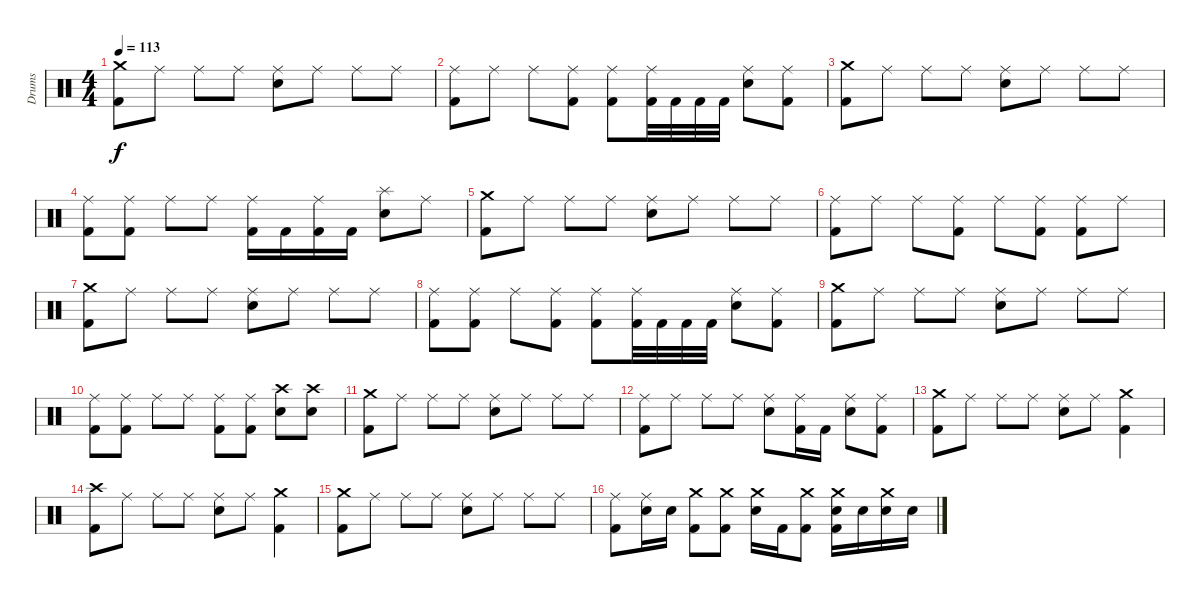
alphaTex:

\track ("Drums" "Drums") {instrument percussion}
\staff {score}
\articulation defaults
\ts (4 4)
\tempo 113
\clef neutral
\ks c
("Kick (hit) 2" "Crash medium (hit)").8{dy f} "Ride (middle)".8 "Ride (middle)".8 "Ride (middle)".8 ("Electric Snare (hit)" "Ride (middle)").8 "Ride (middle)".8 "Ride (middle)".8 "Ride (middle)".8 |
("Kick (hit) 2" "Ride (middle)").8 "Ride (middle)".8 "Ride (middle)".8 ("Kick (hit) 2" "Ride (middle)").8 ("Kick (hit) 2" "Ride (middle)").8 ("Kick (hit) 2" "Ride (middle)").32 "Kick (hit) 2".32 "Kick (hit) 2".32 "Kick (hit) 2".32 ("Electric Snare (hit)" "Ride (middle)").8 ("Kick (hit) 2" "Ride (middle)").8 |
("Kick (hit) 2" "Crash medium (hit)").8 "Ride (middle)".8 "Ride (middle)".8 "Ride (middle)".8 ("Electric Snare (hit)" "Ride (middle)").8 "Ride (middle)".8 "Ride (middle)".8 "Ride (middle)".8 |
("Kick (hit) 2" "Ride (middle)").8 ("Kick (hit) 2" "Ride (middle)").8 "Ride (middle)".8 "Ride (middle)".8 ("Kick (hit) 2" "Ride (middle)").16 "Kick (hit) 2".16 ("Kick (hit) 2" "Ride (middle)").16 "Kick (hit) 2".16 ("Electric Snare (hit)" "Splash (hit)").8 "Ride (middle)".8 |
("Kick (hit) 2" "Crash medium (hit)").8 "Ride (middle)".8 "Ride (middle)".8 "Ride (middle)".8 ("Electric Snare (hit)" "Ride (middle)").8 "Ride (middle)".8 "Ride (middle)".8 "Ride (middle)".8 |
("Kick (hit) 2" "Ride (middle)").8 "Ride (middle)".8 "Ride (middle)".8 ("Kick (hit) 2" "Ride (middle)").8 "Ride (middle)".8 ("Kick (hit) 2" "Ride (middle)").8 ("Kick (hit) 2" "Ride (middle)").8 "Ride (middle)".8 |
("Kick (hit) 2" "Crash medium (hit)").8 "Ride (middle)".8 "Ride (middle)".8 "Ride (middle)".8 ("Electric Snare (hit)" "Ride (middle)").8 "Ride (middle)".8 "Ride (middle)".8 "Ride (middle)".8 |
("Kick (hit) 2" "Ride (middle)").8 ("Kick (hit) 2" "Ride (middle)").8 "Ride (middle)".8 ("Kick (hit) 2" "Ride (middle)").8 ("Kick (hit) 2" "Ride (middle)").8 ("Kick (hit) 2" "Ride (middle)").32 "Kick (hit) 2".32 "Kick (hit) 2".32 "Kick (hit) 2".32 ("Electric Snare (hit)" "Ride (middle)").8 ("Kick (hit) 2" "Ride (middle)").8 |
("Kick (hit) 2" "Crash medium (hit)").8 "Ride (middle)".8 "Ride (middle)".8 "Ride (middle)".8 ("Electric Snare (hit)" "Ride (middle)").8 "Ride (middle)".8 "Ride (middle)".8 "Ride (middle)".8 |
("Kick (hit) 2" "Ride (middle)").8 ("Kick (hit) 2" "Ride (middle)").8 "Ride (middle)".8 "Ride (middle)".8 ("Kick (hit) 2" "Ride (middle)").8 ("Kick (hit) 2" "Ride (middle)").8 ("Electric Snare (hit)" "Crash high (hit)").8 ("Electric Snare (hit)" "Crash high (hit)").8 |
("Kick (hit) 2" "Crash medium (hit)").8 "Ride (middle)".8 "Ride (middle)".8 "Ride (middle)".8 ("Electric Snare (hit)" "Ride (middle)").8 "Ride (middle)".8 "Ride (middle)".8 "Ride (middle)".8 |
("Kick (hit) 2" "Ride (middle)").8 "Ride (middle)".8 "Ride (middle)".8 "Ride (middle)".8 ("Electric Snare (hit)" "Ride (middle)").8 ("Kick (hit) 2" "Ride (middle)").16 "Kick (hit) 2".16 ("Electric Snare (hit)" "Ride (middle)").8 ("Kick (hit) 2" "Ride (middle)").8 |
("Kick (hit) 2" "Crash medium (hit)").8 "Ride (middle)".8 "Ride (middle)".8 "Ride (middle)".8 ("Electric Snare (hit)" "Ride (middle)").8 "Ride (middle)".8 ("Kick (hit) 2" "Crash medium (hit)").4 |
("Kick (hit) 2" "Crash high (hit)").8 "Ride (middle)".8 "Ride (middle)".8 "Ride (middle)".8 ("Electric Snare (hit)" "Ride (middle)").8 "Ride (middle)".8 ("Kick (hit) 2" "Crash medium (hit)").4 |
("Kick (hit) 2" "Crash medium (hit)").8 "Ride (middle)".8 "Ride (middle)".8 "Ride (middle)".8 ("Electric Snare (hit)" "Ride (middle)").8 "Ride (middle)".8 "Ride (middle)".8 "Ride (middle)".8 |
("Kick (hit) 2" "Ride (middle)").8 ("Electric Snare (hit)" "Ride (middle)").16 "Electric Snare (hit)".16 ("Kick (hit) 2" "Crash medium (hit)").8 ("Kick (hit) 2" "Crash medium (hit)").8 ("Electric Snare (hit)" "Crash medium (hit)").16 "Kick (hit) 2".16 ("Kick (hit) 2" "Crash medium (hit)").8 ("Kick (hit) 2" "Electric Snare (hit)" "Crash medium (hit)").16 "Electric Snare (hit)".16 ("Electric Snare (hit)" "Crash medium (hit)").16 "Electric Snare (hit)".16
